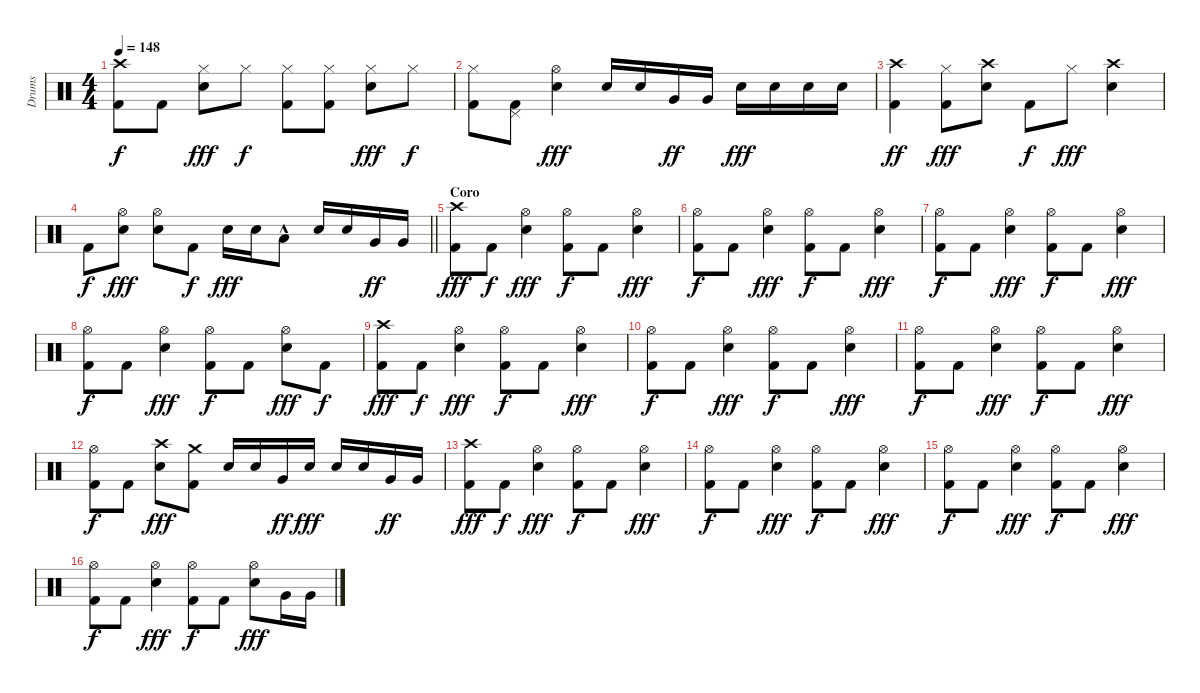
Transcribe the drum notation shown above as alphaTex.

\track ("Drums" "Drums") {instrument percussion}
\staff {score}
\articulation defaults
\ts (4 4)
\tempo 148
\clef neutral
\ks c
("Crash high (hit)" "Kick (hit) 2").8{dy f} "Kick (hit) 2".8 ("Hi-Hat (closed)" "Electric Snare (hit)").8{dy fff} "Hi-Hat (closed)".8{dy f} ("Hi-Hat (closed)" "Kick (hit) 2").8 ("Hi-Hat (closed)" "Kick (hit) 2").8 ("Hi-Hat (closed)" "Electric Snare (hit)").8{dy fff} "Hi-Hat (closed)".8{dy f} |
("Hi-Hat (closed)" "Kick (hit) 2").8 ("Pedal Hi-Hat (hit)" "Kick (hit) 2").8 ("Hi-Hat (open)" "Electric Snare (hit)").4{dy fff} "Electric Snare (hit)".16 "Electric Snare (hit)".16 "Very Low Tom (hit)".16{dy ff} "Very Low Tom (hit)".16 "Electric Snare (hit)".16{dy fff} "Electric Snare (hit)".16 "Electric Snare (hit)".16 "Electric Snare (hit)".16 |
("Crash high (hit)" "Kick (hit) 2").4{dy ff} ("Hi-Hat (closed)" "Kick (hit) 2").8{dy fff} ("Crash high (hit)" "Electric Snare (hit)").8 "Kick (hit) 2".8{dy f} "Hi-Hat (closed)".8{dy fff} ("Crash high (hit)" "Electric Snare (hit)").4 |
\barLineRight lightlight "Kick (hit) 2".8{dy f}
("Hi-Hat (open)" "Electric Snare (hit)").8{dy fff} ("Hi-Hat (open)" "Electric Snare (hit)").8 "Kick (hit) 2".8{dy f} "Electric Snare (hit)".16{dy fff} "Electric Snare (hit)".16 "Low Tom (hit)"{hac}.8 "Electric Snare (hit)".16 "Electric Snare (hit)".16 "Very Low Tom (hit)".16{dy ff} "Very Low Tom (hit)".16 |
\section ("" "Coro")
("Crash high (hit)" "Kick (hit) 2").8{dy fff} "Kick (hit) 2".8{dy f} ("Hi-Hat (open)" "Electric Snare (hit)").4{dy fff} ("Hi-Hat (open)" "Kick (hit) 2").8{dy f} "Kick (hit) 2".8 ("Hi-Hat (open)" "Electric Snare (hit)").4{dy fff} |
("Hi-Hat (open)" "Kick (hit) 2").8{dy f} "Kick (hit) 2".8 ("Hi-Hat (open)" "Electric Snare (hit)").4{dy fff} ("Hi-Hat (open)" "Kick (hit) 2").8{dy f} "Kick (hit) 2".8 ("Hi-Hat (open)" "Electric Snare (hit)").4{dy fff} |
("Hi-Hat (open)" "Kick (hit) 2").8{dy f} "Kick (hit) 2".8 ("Hi-Hat (open)" "Electric Snare (hit)").4{dy fff} ("Hi-Hat (open)" "Kick (hit) 2").8{dy f} "Kick (hit) 2".8 ("Hi-Hat (open)" "Electric Snare (hit)").4{dy fff} |
("Hi-Hat (open)" "Kick (hit) 2").8{dy f} "Kick (hit) 2".8 ("Hi-Hat (open)" "Electric Snare (hit)").4{dy fff} ("Hi-Hat (open)" "Kick (hit) 2").8{dy f} "Kick (hit) 2".8 ("Hi-Hat (open)" "Electric Snare (hit)").8{dy fff} "Kick (hit) 2".8{dy f} |
("Crash high (hit)" "Kick (hit) 2").8{dy fff} "Kick (hit) 2".8{dy f} ("Hi-Hat (open)" "Electric Snare (hit)").4{dy fff} ("Hi-Hat (open)" "Kick (hit) 2").8{dy f} "Kick (hit) 2".8 ("Hi-Hat (open)" "Electric Snare (hit)").4{dy fff} |
("Hi-Hat (open)" "Kick (hit) 2").8{dy f} "Kick (hit) 2".8 ("Hi-Hat (open)" "Electric Snare (hit)").4{dy fff} ("Hi-Hat (open)" "Kick (hit) 2").8{dy f} "Kick (hit) 2".8 ("Hi-Hat (open)" "Electric Snare (hit)").4{dy fff} |
("Hi-Hat (open)" "Kick (hit) 2").8{dy f} "Kick (hit) 2".8 ("Hi-Hat (open)" "Electric Snare (hit)").4{dy fff} ("Hi-Hat (open)" "Kick (hit) 2").8{dy f} "Kick (hit) 2".8 ("Hi-Hat (open)" "Electric Snare (hit)").4{dy fff} |
("Hi-Hat (open)" "Kick (hit) 2").8{dy f} "Kick (hit) 2".8 ("Crash high (hit)" "Electric Snare (hit)").8{dy fff} ("Crash medium (hit)" "Kick (hit) 2").8 "Electric Snare (hit)".16 "Electric Snare (hit)".16 "Very Low Tom (hit)".16{dy ff} "Electric Snare (hit)".16{dy fff} "Electric Snare (hit)".16 "Electric Snare (hit)".16 "Very Low Tom (hit)".16{dy ff} "Very Low Tom (hit)".16 |
("Crash high (hit)" "Kick (hit) 2").8{dy fff} "Kick (hit) 2".8{dy f} ("Hi-Hat (open)" "Electric Snare (hit)").4{dy fff} ("Hi-Hat (open)" "Kick (hit) 2").8{dy f} "Kick (hit) 2".8 ("Hi-Hat (open)" "Electric Snare (hit)").4{dy fff} |
("Hi-Hat (open)" "Kick (hit) 2").8{dy f} "Kick (hit) 2".8 ("Hi-Hat (open)" "Electric Snare (hit)").4{dy fff} ("Hi-Hat (open)" "Kick (hit) 2").8{dy f} "Kick (hit) 2".8 ("Hi-Hat (open)" "Electric Snare (hit)").4{dy fff} |
("Hi-Hat (open)" "Kick (hit) 2").8{dy f} "Kick (hit) 2".8 ("Hi-Hat (open)" "Electric Snare (hit)").4{dy fff} ("Hi-Hat (open)" "Kick (hit) 2").8{dy f} "Kick (hit) 2".8 ("Hi-Hat (open)" "Electric Snare (hit)").4{dy fff} |
("Hi-Hat (open)" "Kick (hit) 2").8{dy f} "Kick (hit) 2".8 ("Hi-Hat (open)" "Electric Snare (hit)").4{dy fff} ("Hi-Hat (open)" "Kick (hit) 2").8{dy f} "Kick (hit) 2".8 ("Hi-Hat (open)" "Electric Snare (hit)").8{dy fff} "Very Low Tom (hit)".16 "Very Low Tom (hit)".16
